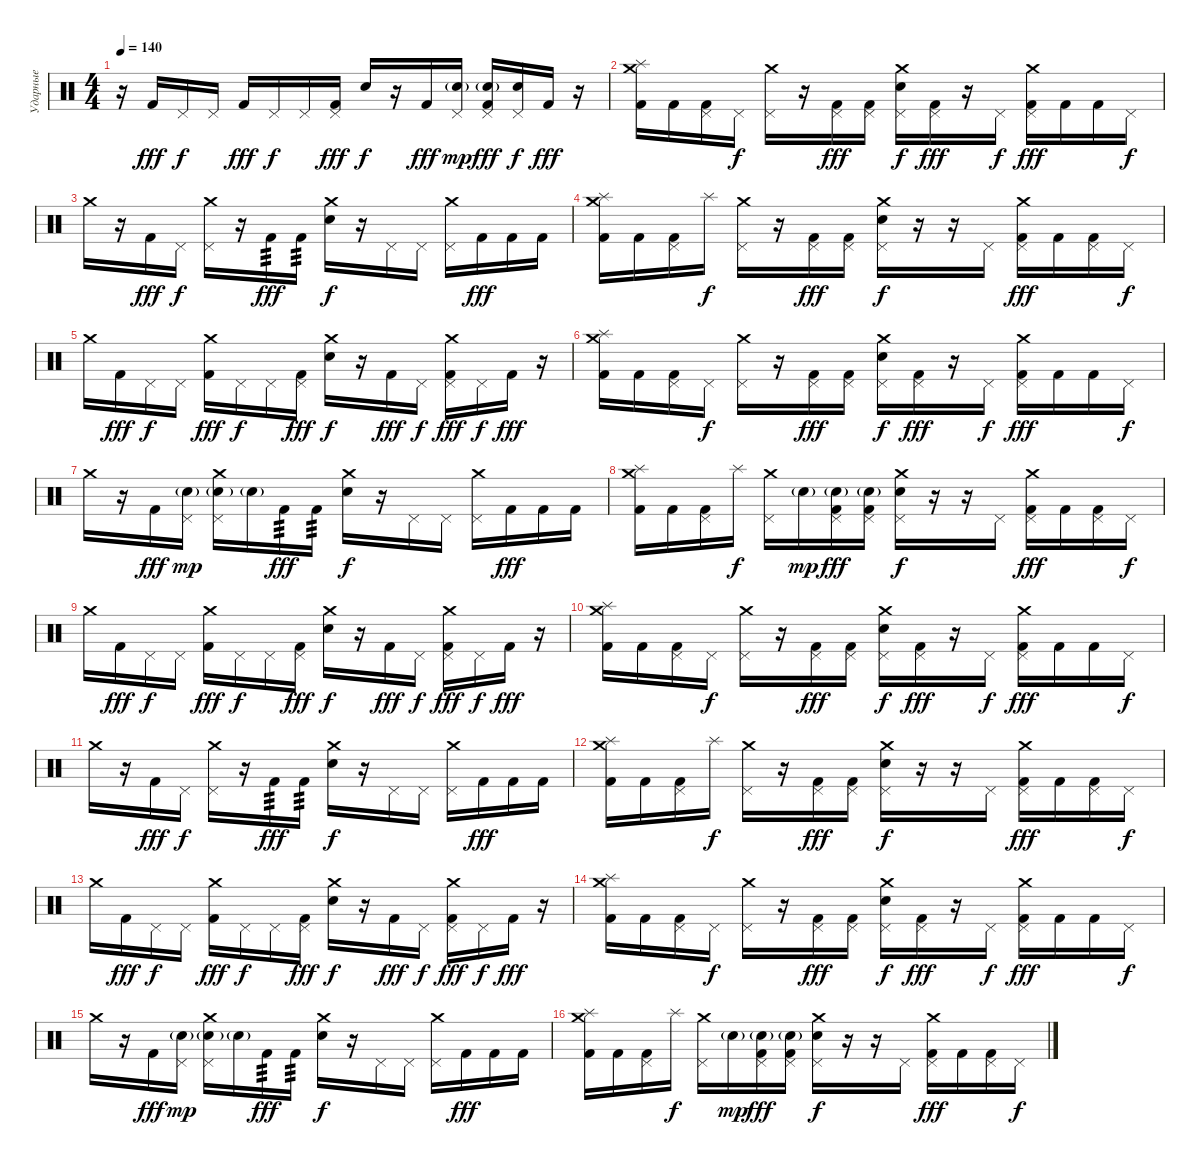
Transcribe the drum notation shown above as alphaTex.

\track ("Ударные" "Ударные") {instrument percussion}
\staff {score}
\articulation defaults
\ts (4 4)
\tempo 140
\clef neutral
\ks c
r.16{dy fff} "Kick (hit) 2".16 "Pedal Hi-Hat (hit)".16{dy f} "Pedal Hi-Hat (hit)".16 "Kick (hit) 2".16{dy fff} "Pedal Hi-Hat (hit)".16{dy f} "Pedal Hi-Hat (hit)".16 ("Pedal Hi-Hat (hit)" "Kick (hit) 2").16{dy fff} "Electric Snare (hit)".16{dy f} r.16 "Kick (hit) 2".16{dy fff} ("Pedal Hi-Hat (hit)" "Electric Snare (hit)"{g}).16{dy mp} ("Pedal Hi-Hat (hit)" "Electric Snare (hit)"{g} "Kick (hit) 2").16{dy fff} ("Pedal Hi-Hat (hit)" "Electric Snare (hit)").16{dy f} "Kick (hit) 2".16{dy fff} r.16 |
("Crash medium (hit)" "Splash (hit)" "Kick (hit) 2").16 "Kick (hit) 2".16 ("Pedal Hi-Hat (hit)" "Kick (hit) 2").16 "Pedal Hi-Hat (hit)".16{dy f} ("Crash medium (hit)" "Pedal Hi-Hat (hit)").16 r.16 ("Pedal Hi-Hat (hit)" "Kick (hit) 2").16{dy fff} ("Pedal Hi-Hat (hit)" "Kick (hit) 2").16 ("Crash medium (hit)" "Pedal Hi-Hat (hit)" "Electric Snare (hit)").16{dy f} ("Pedal Hi-Hat (hit)" "Kick (hit) 2").16{dy fff} r.16 "Pedal Hi-Hat (hit)".16{dy f} ("Crash medium (hit)" "Pedal Hi-Hat (hit)" "Kick (hit) 2").16{dy fff} "Kick (hit) 2".16 "Kick (hit) 2".16 "Pedal Hi-Hat (hit)".16{dy f} |
"Crash medium (hit)".16 r.16 "Kick (hit) 2".16{dy fff} "Pedal Hi-Hat (hit)".16{dy f} ("Crash medium (hit)" "Pedal Hi-Hat (hit)").16 r.16 "Kick (hit) 2".16{tp 3 dy fff} "Kick (hit) 2".16{tp 3} ("Crash medium (hit)" "Electric Snare (hit)").16{dy f} r.16 "Pedal Hi-Hat (hit)".16 "Pedal Hi-Hat (hit)".16 ("Crash medium (hit)" "Pedal Hi-Hat (hit)").16 "Kick (hit) 2".16{dy fff} "Kick (hit) 2".16 "Kick (hit) 2".16 |
("Crash medium (hit)" "Splash (hit)" "Kick (hit) 2").16 "Kick (hit) 2".16 ("Pedal Hi-Hat (hit)" "Kick (hit) 2").16 "Splash (hit)".16{dy f} ("Crash medium (hit)" "Pedal Hi-Hat (hit)").16 r.16 ("Pedal Hi-Hat (hit)" "Kick (hit) 2").16{dy fff} ("Pedal Hi-Hat (hit)" "Kick (hit) 2").16 ("Crash medium (hit)" "Pedal Hi-Hat (hit)" "Electric Snare (hit)").16{dy f} r.16 r.16 "Pedal Hi-Hat (hit)".16 ("Crash medium (hit)" "Pedal Hi-Hat (hit)" "Kick (hit) 2").16{dy fff} "Kick (hit) 2".16 ("Pedal Hi-Hat (hit)" "Kick (hit) 2").16 "Pedal Hi-Hat (hit)".16{dy f} |
"Crash medium (hit)".16 "Kick (hit) 2".16{dy fff} "Pedal Hi-Hat (hit)".16{dy f} "Pedal Hi-Hat (hit)".16 ("Crash medium (hit)" "Kick (hit) 2").16{dy fff} "Pedal Hi-Hat (hit)".16{dy f} "Pedal Hi-Hat (hit)".16 ("Pedal Hi-Hat (hit)" "Kick (hit) 2").16{dy fff} ("Crash medium (hit)" "Electric Snare (hit)").16{dy f} r.16 "Kick (hit) 2".16{dy fff} "Pedal Hi-Hat (hit)".16{dy f} ("Crash medium (hit)" "Pedal Hi-Hat (hit)" "Kick (hit) 2").16{dy fff} "Pedal Hi-Hat (hit)".16{dy f} "Kick (hit) 2".16{dy fff} r.16 |
("Crash medium (hit)" "Splash (hit)" "Kick (hit) 2").16 "Kick (hit) 2".16 ("Pedal Hi-Hat (hit)" "Kick (hit) 2").16 "Pedal Hi-Hat (hit)".16{dy f} ("Crash medium (hit)" "Pedal Hi-Hat (hit)").16 r.16 ("Pedal Hi-Hat (hit)" "Kick (hit) 2").16{dy fff} ("Pedal Hi-Hat (hit)" "Kick (hit) 2").16 ("Crash medium (hit)" "Pedal Hi-Hat (hit)" "Electric Snare (hit)").16{dy f} ("Pedal Hi-Hat (hit)" "Kick (hit) 2").16{dy fff} r.16 "Pedal Hi-Hat (hit)".16{dy f} ("Crash medium (hit)" "Pedal Hi-Hat (hit)" "Kick (hit) 2").16{dy fff} "Kick (hit) 2".16 "Kick (hit) 2".16 "Pedal Hi-Hat (hit)".16{dy f} |
"Crash medium (hit)".16 r.16 "Kick (hit) 2".16{dy fff} ("Pedal Hi-Hat (hit)" "Electric Snare (hit)"{g}).16{dy mp} ("Crash medium (hit)" "Pedal Hi-Hat (hit)" "Electric Snare (hit)"{g}).16 "Electric Snare (hit)"{g}.16 "Kick (hit) 2".16{tp 3 dy fff} "Kick (hit) 2".16{tp 3} ("Crash medium (hit)" "Electric Snare (hit)").16{dy f} r.16 "Pedal Hi-Hat (hit)".16 "Pedal Hi-Hat (hit)".16 ("Crash medium (hit)" "Pedal Hi-Hat (hit)").16 "Kick (hit) 2".16{dy fff} "Kick (hit) 2".16 "Kick (hit) 2".16 |
("Crash medium (hit)" "Splash (hit)" "Kick (hit) 2").16 "Kick (hit) 2".16 ("Pedal Hi-Hat (hit)" "Kick (hit) 2").16 "Splash (hit)".16{dy f} ("Crash medium (hit)" "Pedal Hi-Hat (hit)").16 "Electric Snare (hit)"{g}.16{dy mp} ("Pedal Hi-Hat (hit)" "Electric Snare (hit)"{g} "Kick (hit) 2").16{dy fff} ("Pedal Hi-Hat (hit)" "Electric Snare (hit)"{g} "Kick (hit) 2").16 ("Crash medium (hit)" "Pedal Hi-Hat (hit)" "Electric Snare (hit)").16{dy f} r.16 r.16 "Pedal Hi-Hat (hit)".16 ("Crash medium (hit)" "Pedal Hi-Hat (hit)" "Kick (hit) 2").16{dy fff} "Kick (hit) 2".16 ("Pedal Hi-Hat (hit)" "Kick (hit) 2").16 "Pedal Hi-Hat (hit)".16{dy f} |
"Crash medium (hit)".16 "Kick (hit) 2".16{dy fff} "Pedal Hi-Hat (hit)".16{dy f} "Pedal Hi-Hat (hit)".16 ("Crash medium (hit)" "Kick (hit) 2").16{dy fff} "Pedal Hi-Hat (hit)".16{dy f} "Pedal Hi-Hat (hit)".16 ("Pedal Hi-Hat (hit)" "Kick (hit) 2").16{dy fff} ("Crash medium (hit)" "Electric Snare (hit)").16{dy f} r.16 "Kick (hit) 2".16{dy fff} "Pedal Hi-Hat (hit)".16{dy f} ("Crash medium (hit)" "Pedal Hi-Hat (hit)" "Kick (hit) 2").16{dy fff} "Pedal Hi-Hat (hit)".16{dy f} "Kick (hit) 2".16{dy fff} r.16 |
("Crash medium (hit)" "Splash (hit)" "Kick (hit) 2").16 "Kick (hit) 2".16 ("Pedal Hi-Hat (hit)" "Kick (hit) 2").16 "Pedal Hi-Hat (hit)".16{dy f} ("Crash medium (hit)" "Pedal Hi-Hat (hit)").16 r.16 ("Pedal Hi-Hat (hit)" "Kick (hit) 2").16{dy fff} ("Pedal Hi-Hat (hit)" "Kick (hit) 2").16 ("Crash medium (hit)" "Pedal Hi-Hat (hit)" "Electric Snare (hit)").16{dy f} ("Pedal Hi-Hat (hit)" "Kick (hit) 2").16{dy fff} r.16 "Pedal Hi-Hat (hit)".16{dy f} ("Crash medium (hit)" "Pedal Hi-Hat (hit)" "Kick (hit) 2").16{dy fff} "Kick (hit) 2".16 "Kick (hit) 2".16 "Pedal Hi-Hat (hit)".16{dy f} |
"Crash medium (hit)".16 r.16 "Kick (hit) 2".16{dy fff} "Pedal Hi-Hat (hit)".16{dy f} ("Crash medium (hit)" "Pedal Hi-Hat (hit)").16 r.16 "Kick (hit) 2".16{tp 3 dy fff} "Kick (hit) 2".16{tp 3} ("Crash medium (hit)" "Electric Snare (hit)").16{dy f} r.16 "Pedal Hi-Hat (hit)".16 "Pedal Hi-Hat (hit)".16 ("Crash medium (hit)" "Pedal Hi-Hat (hit)").16 "Kick (hit) 2".16{dy fff} "Kick (hit) 2".16 "Kick (hit) 2".16 |
("Crash medium (hit)" "Splash (hit)" "Kick (hit) 2").16 "Kick (hit) 2".16 ("Pedal Hi-Hat (hit)" "Kick (hit) 2").16 "Splash (hit)".16{dy f} ("Crash medium (hit)" "Pedal Hi-Hat (hit)").16 r.16 ("Pedal Hi-Hat (hit)" "Kick (hit) 2").16{dy fff} ("Pedal Hi-Hat (hit)" "Kick (hit) 2").16 ("Crash medium (hit)" "Pedal Hi-Hat (hit)" "Electric Snare (hit)").16{dy f} r.16 r.16 "Pedal Hi-Hat (hit)".16 ("Crash medium (hit)" "Pedal Hi-Hat (hit)" "Kick (hit) 2").16{dy fff} "Kick (hit) 2".16 ("Pedal Hi-Hat (hit)" "Kick (hit) 2").16 "Pedal Hi-Hat (hit)".16{dy f} |
"Crash medium (hit)".16 "Kick (hit) 2".16{dy fff} "Pedal Hi-Hat (hit)".16{dy f} "Pedal Hi-Hat (hit)".16 ("Crash medium (hit)" "Kick (hit) 2").16{dy fff} "Pedal Hi-Hat (hit)".16{dy f} "Pedal Hi-Hat (hit)".16 ("Pedal Hi-Hat (hit)" "Kick (hit) 2").16{dy fff} ("Crash medium (hit)" "Electric Snare (hit)").16{dy f} r.16 "Kick (hit) 2".16{dy fff} "Pedal Hi-Hat (hit)".16{dy f} ("Crash medium (hit)" "Pedal Hi-Hat (hit)" "Kick (hit) 2").16{dy fff} "Pedal Hi-Hat (hit)".16{dy f} "Kick (hit) 2".16{dy fff} r.16 |
("Crash medium (hit)" "Splash (hit)" "Kick (hit) 2").16 "Kick (hit) 2".16 ("Pedal Hi-Hat (hit)" "Kick (hit) 2").16 "Pedal Hi-Hat (hit)".16{dy f} ("Crash medium (hit)" "Pedal Hi-Hat (hit)").16 r.16 ("Pedal Hi-Hat (hit)" "Kick (hit) 2").16{dy fff} ("Pedal Hi-Hat (hit)" "Kick (hit) 2").16 ("Crash medium (hit)" "Pedal Hi-Hat (hit)" "Electric Snare (hit)").16{dy f} ("Pedal Hi-Hat (hit)" "Kick (hit) 2").16{dy fff} r.16 "Pedal Hi-Hat (hit)".16{dy f} ("Crash medium (hit)" "Pedal Hi-Hat (hit)" "Kick (hit) 2").16{dy fff} "Kick (hit) 2".16 "Kick (hit) 2".16 "Pedal Hi-Hat (hit)".16{dy f} |
"Crash medium (hit)".16 r.16 "Kick (hit) 2".16{dy fff} ("Pedal Hi-Hat (hit)" "Electric Snare (hit)"{g}).16{dy mp} ("Crash medium (hit)" "Pedal Hi-Hat (hit)" "Electric Snare (hit)"{g}).16 "Electric Snare (hit)"{g}.16 "Kick (hit) 2".16{tp 3 dy fff} "Kick (hit) 2".16{tp 3} ("Crash medium (hit)" "Electric Snare (hit)").16{dy f} r.16 "Pedal Hi-Hat (hit)".16 "Pedal Hi-Hat (hit)".16 ("Crash medium (hit)" "Pedal Hi-Hat (hit)").16 "Kick (hit) 2".16{dy fff} "Kick (hit) 2".16 "Kick (hit) 2".16 |
("Crash medium (hit)" "Splash (hit)" "Kick (hit) 2").16 "Kick (hit) 2".16 ("Pedal Hi-Hat (hit)" "Kick (hit) 2").16 "Splash (hit)".16{dy f} ("Crash medium (hit)" "Pedal Hi-Hat (hit)").16 "Electric Snare (hit)"{g}.16{dy mp} ("Pedal Hi-Hat (hit)" "Electric Snare (hit)"{g} "Kick (hit) 2").16{dy fff} ("Pedal Hi-Hat (hit)" "Electric Snare (hit)"{g} "Kick (hit) 2").16 ("Crash medium (hit)" "Pedal Hi-Hat (hit)" "Electric Snare (hit)").16{dy f} r.16 r.16 "Pedal Hi-Hat (hit)".16 ("Crash medium (hit)" "Pedal Hi-Hat (hit)" "Kick (hit) 2").16{dy fff} "Kick (hit) 2".16 ("Pedal Hi-Hat (hit)" "Kick (hit) 2").16 "Pedal Hi-Hat (hit)".16{dy f}
